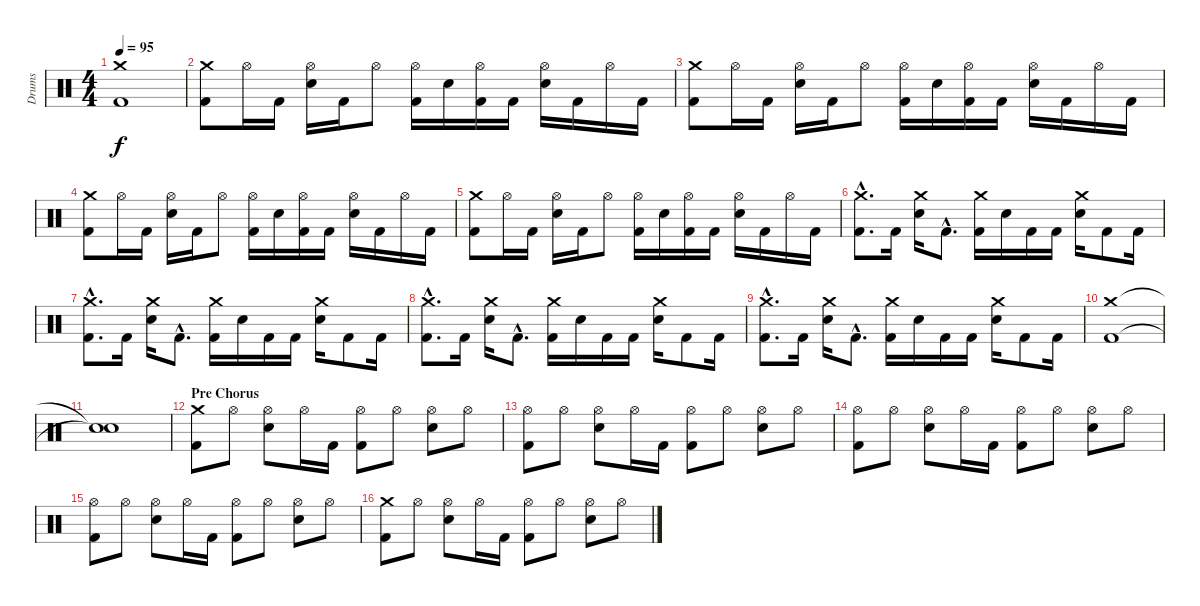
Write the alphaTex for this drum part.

\track ("Drums" "Drums") {instrument percussion}
\staff {score}
\articulation defaults
\ts (4 4)
\tempo 95
\clef neutral
\ks c
("Crash medium (hit)" "Kick (hit) 2").1{dy f} |
("Crash medium (hit)" "Kick (hit) 2").8 "Hi-Hat (open)".16 "Kick (hit) 2".16 ("Hi-Hat (open)" "Electric Snare (hit)").16 "Kick (hit) 2".16 "Hi-Hat (open)".8 ("Hi-Hat (open)" "Kick (hit) 2").16 "Electric Snare (hit)".16 ("Hi-Hat (open)" "Kick (hit) 2").16 "Kick (hit) 2".16 ("Hi-Hat (open)" "Electric Snare (hit)").16 "Kick (hit) 2".16 "Hi-Hat (open)".16 "Kick (hit) 2".16 |
("Crash medium (hit)" "Kick (hit) 2").8 "Hi-Hat (open)".16 "Kick (hit) 2".16 ("Hi-Hat (open)" "Electric Snare (hit)").16 "Kick (hit) 2".16 "Hi-Hat (open)".8 ("Hi-Hat (open)" "Kick (hit) 2").16 "Electric Snare (hit)".16 ("Hi-Hat (open)" "Kick (hit) 2").16 "Kick (hit) 2".16 ("Hi-Hat (open)" "Electric Snare (hit)").16 "Kick (hit) 2".16 "Hi-Hat (open)".16 "Kick (hit) 2".16 |
("Crash medium (hit)" "Kick (hit) 2").8 "Hi-Hat (open)".16 "Kick (hit) 2".16 ("Hi-Hat (open)" "Electric Snare (hit)").16 "Kick (hit) 2".16 "Hi-Hat (open)".8 ("Hi-Hat (open)" "Kick (hit) 2").16 "Electric Snare (hit)".16 ("Hi-Hat (open)" "Kick (hit) 2").16 "Kick (hit) 2".16 ("Hi-Hat (open)" "Electric Snare (hit)").16 "Kick (hit) 2".16 "Hi-Hat (open)".16 "Kick (hit) 2".16 |
("Crash medium (hit)" "Kick (hit) 2").8 "Hi-Hat (open)".16 "Kick (hit) 2".16 ("Hi-Hat (open)" "Electric Snare (hit)").16 "Kick (hit) 2".16 "Hi-Hat (open)".8 ("Hi-Hat (open)" "Kick (hit) 2").16 "Electric Snare (hit)".16 ("Hi-Hat (open)" "Kick (hit) 2").16 "Kick (hit) 2".16 ("Hi-Hat (open)" "Electric Snare (hit)").16 "Kick (hit) 2".16 "Hi-Hat (open)".16 "Kick (hit) 2".16 |
("Crash medium (hit)"{hac} "Kick (hit) 2"{hac}).8{d} "Kick (hit) 2".16 ("Crash medium (hit)" "Electric Snare (hit)").16 "Kick (hit) 2"{hac}.8{d} ("Crash medium (hit)" "Kick (hit) 2").16 "Electric Snare (hit)".16 "Kick (hit) 2".16 "Kick (hit) 2".16 ("Crash medium (hit)" "Electric Snare (hit)").16 "Kick (hit) 2".8 "Kick (hit) 2".16 |
("Crash medium (hit)"{hac} "Kick (hit) 2"{hac}).8{d} "Kick (hit) 2".16 ("Crash medium (hit)" "Electric Snare (hit)").16 "Kick (hit) 2"{hac}.8{d} ("Crash medium (hit)" "Kick (hit) 2").16 "Electric Snare (hit)".16 "Kick (hit) 2".16 "Kick (hit) 2".16 ("Crash medium (hit)" "Electric Snare (hit)").16 "Kick (hit) 2".8 "Kick (hit) 2".16 |
("Crash medium (hit)"{hac} "Kick (hit) 2"{hac}).8{d} "Kick (hit) 2".16 ("Crash medium (hit)" "Electric Snare (hit)").16 "Kick (hit) 2"{hac}.8{d} ("Crash medium (hit)" "Kick (hit) 2").16 "Electric Snare (hit)".16 "Kick (hit) 2".16 "Kick (hit) 2".16 ("Crash medium (hit)" "Electric Snare (hit)").16 "Kick (hit) 2".8 "Kick (hit) 2".16 |
("Crash medium (hit)"{hac} "Kick (hit) 2"{hac}).8{d} "Kick (hit) 2".16 ("Crash medium (hit)" "Electric Snare (hit)").16 "Kick (hit) 2"{hac}.8{d} ("Crash medium (hit)" "Kick (hit) 2").16 "Electric Snare (hit)".16 "Kick (hit) 2".16 "Kick (hit) 2".16 ("Crash medium (hit)" "Electric Snare (hit)").16 "Kick (hit) 2".8 "Kick (hit) 2".16 |
("Crash medium (hit)" "Kick (hit) 2").1 |
("Snare (hit)"{t} "Snare (hit)"{t}).1 |
\section ("" "Pre Chorus")
("Crash medium (hit)" "Kick (hit) 2").8 "Hi-Hat (open)".8 ("Hi-Hat (open)" "Electric Snare (hit)").8 "Hi-Hat (open)".16 "Kick (hit) 2".16 ("Hi-Hat (open)" "Kick (hit) 2").8 "Hi-Hat (open)".8 ("Hi-Hat (open)" "Electric Snare (hit)").8 "Hi-Hat (open)".8 |
("Hi-Hat (open)" "Kick (hit) 2").8 "Hi-Hat (open)".8 ("Hi-Hat (open)" "Electric Snare (hit)").8 "Hi-Hat (open)".16 "Kick (hit) 2".16 ("Hi-Hat (open)" "Kick (hit) 2").8 "Hi-Hat (open)".8 ("Hi-Hat (open)" "Electric Snare (hit)").8 "Hi-Hat (open)".8 |
("Hi-Hat (open)" "Kick (hit) 2").8 "Hi-Hat (open)".8 ("Hi-Hat (open)" "Electric Snare (hit)").8 "Hi-Hat (open)".16 "Kick (hit) 2".16 ("Hi-Hat (open)" "Kick (hit) 2").8 "Hi-Hat (open)".8 ("Hi-Hat (open)" "Electric Snare (hit)").8 "Hi-Hat (open)".8 |
("Hi-Hat (open)" "Kick (hit) 2").8 "Hi-Hat (open)".8 ("Hi-Hat (open)" "Electric Snare (hit)").8 "Hi-Hat (open)".16 "Kick (hit) 2".16 ("Hi-Hat (open)" "Kick (hit) 2").8 "Hi-Hat (open)".8 ("Hi-Hat (open)" "Electric Snare (hit)").8 "Hi-Hat (open)".8 |
("Crash medium (hit)" "Kick (hit) 2").8 "Hi-Hat (open)".8 ("Hi-Hat (open)" "Electric Snare (hit)").8 "Hi-Hat (open)".16 "Kick (hit) 2".16 ("Hi-Hat (open)" "Kick (hit) 2").8 "Hi-Hat (open)".8 ("Hi-Hat (open)" "Electric Snare (hit)").8 "Hi-Hat (open)".8
